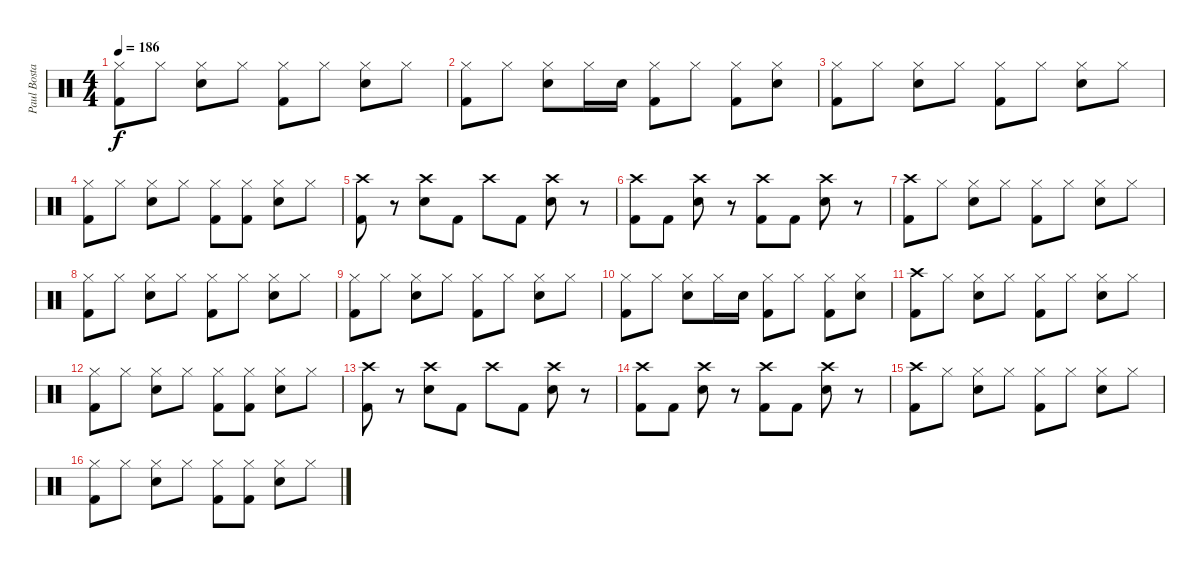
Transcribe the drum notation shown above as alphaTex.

\track ("Paul Bostaph" "Paul Bosta") {instrument percussion}
\staff {score}
\articulation defaults
\ts (4 4)
\tempo 186
\clef neutral
\ks c
("Hi-Hat (closed)" "Kick (hit) 2").8{dy f} "Hi-Hat (closed)".8 ("Hi-Hat (closed)" "Electric Snare (hit)").8 "Hi-Hat (closed)".8 ("Hi-Hat (closed)" "Kick (hit) 2").8 "Hi-Hat (closed)".8 ("Hi-Hat (closed)" "Electric Snare (hit)").8 "Hi-Hat (closed)".8 |
("Hi-Hat (closed)" "Kick (hit) 2").8 "Hi-Hat (closed)".8 ("Hi-Hat (closed)" "Electric Snare (hit)").8 "Hi-Hat (closed)".16 "Electric Snare (hit)".16 ("Hi-Hat (closed)" "Kick (hit) 2").8 "Hi-Hat (closed)".8 ("Hi-Hat (closed)" "Kick (hit) 2").8 ("Hi-Hat (closed)" "Electric Snare (hit)").8 |
("Hi-Hat (closed)" "Kick (hit) 2").8 "Hi-Hat (closed)".8 ("Hi-Hat (closed)" "Electric Snare (hit)").8 "Hi-Hat (closed)".8 ("Hi-Hat (closed)" "Kick (hit) 2").8 "Hi-Hat (closed)".8 ("Hi-Hat (closed)" "Electric Snare (hit)").8 "Hi-Hat (closed)".8 |
("Hi-Hat (closed)" "Kick (hit) 2").8 "Hi-Hat (closed)".8 ("Hi-Hat (closed)" "Electric Snare (hit)").8 "Hi-Hat (closed)".8 ("Hi-Hat (closed)" "Kick (hit) 2").8 ("Hi-Hat (closed)" "Kick (hit) 2").8 ("Hi-Hat (closed)" "Electric Snare (hit)").8 "Hi-Hat (closed)".8 |
("Crash high (hit)" "Kick (hit) 2").8 r.8 ("Crash high (hit)" "Electric Snare (hit)").8 "Kick (hit) 2".8 "Crash high (hit)".8 "Kick (hit) 2".8 ("Crash high (hit)" "Electric Snare (hit)").8 r.8 |
("Crash high (hit)" "Kick (hit) 2").8 "Kick (hit) 2".8 ("Crash high (hit)" "Electric Snare (hit)").8 r.8 ("Crash high (hit)" "Kick (hit) 2").8 "Kick (hit) 2".8 ("Crash high (hit)" "Electric Snare (hit)").8 r.8 |
("Crash high (hit)" "Kick (hit) 2").8 "Hi-Hat (closed)".8 ("Hi-Hat (closed)" "Electric Snare (hit)").8 "Hi-Hat (closed)".8 ("Hi-Hat (closed)" "Kick (hit) 2").8 "Hi-Hat (closed)".8 ("Hi-Hat (closed)" "Electric Snare (hit)").8 "Hi-Hat (closed)".8 |
("Hi-Hat (closed)" "Kick (hit) 2").8 "Hi-Hat (closed)".8 ("Hi-Hat (closed)" "Electric Snare (hit)").8 "Hi-Hat (closed)".8 ("Hi-Hat (closed)" "Kick (hit) 2").8 "Hi-Hat (closed)".8 ("Hi-Hat (closed)" "Electric Snare (hit)").8 "Hi-Hat (closed)".8 |
("Hi-Hat (closed)" "Kick (hit) 2").8 "Hi-Hat (closed)".8 ("Hi-Hat (closed)" "Electric Snare (hit)").8 "Hi-Hat (closed)".8 ("Hi-Hat (closed)" "Kick (hit) 2").8 "Hi-Hat (closed)".8 ("Hi-Hat (closed)" "Electric Snare (hit)").8 "Hi-Hat (closed)".8 |
("Hi-Hat (closed)" "Kick (hit) 2").8 "Hi-Hat (closed)".8 ("Hi-Hat (closed)" "Electric Snare (hit)").8 "Hi-Hat (closed)".16 "Electric Snare (hit)".16 ("Hi-Hat (closed)" "Kick (hit) 2").8 "Hi-Hat (closed)".8 ("Hi-Hat (closed)" "Kick (hit) 2").8 ("Hi-Hat (closed)" "Electric Snare (hit)").8 |
("Crash high (hit)" "Kick (hit) 2").8 "Hi-Hat (closed)".8 ("Hi-Hat (closed)" "Electric Snare (hit)").8 "Hi-Hat (closed)".8 ("Hi-Hat (closed)" "Kick (hit) 2").8 "Hi-Hat (closed)".8 ("Hi-Hat (closed)" "Electric Snare (hit)").8 "Hi-Hat (closed)".8 |
("Hi-Hat (closed)" "Kick (hit) 2").8 "Hi-Hat (closed)".8 ("Hi-Hat (closed)" "Electric Snare (hit)").8 "Hi-Hat (closed)".8 ("Hi-Hat (closed)" "Kick (hit) 2").8 ("Hi-Hat (closed)" "Kick (hit) 2").8 ("Hi-Hat (closed)" "Electric Snare (hit)").8 "Hi-Hat (closed)".8 |
("Crash high (hit)" "Kick (hit) 2").8 r.8 ("Crash high (hit)" "Electric Snare (hit)").8 "Kick (hit) 2".8 "Crash high (hit)".8 "Kick (hit) 2".8 ("Crash high (hit)" "Electric Snare (hit)").8 r.8 |
("Crash high (hit)" "Kick (hit) 2").8 "Kick (hit) 2".8 ("Crash high (hit)" "Electric Snare (hit)").8 r.8 ("Crash high (hit)" "Kick (hit) 2").8 "Kick (hit) 2".8 ("Crash high (hit)" "Electric Snare (hit)").8 r.8 |
("Crash high (hit)" "Kick (hit) 2").8 "Hi-Hat (closed)".8 ("Hi-Hat (closed)" "Electric Snare (hit)").8 "Hi-Hat (closed)".8 ("Hi-Hat (closed)" "Kick (hit) 2").8 "Hi-Hat (closed)".8 ("Hi-Hat (closed)" "Electric Snare (hit)").8 "Hi-Hat (closed)".8 |
("Hi-Hat (closed)" "Kick (hit) 2").8 "Hi-Hat (closed)".8 ("Hi-Hat (closed)" "Electric Snare (hit)").8 "Hi-Hat (closed)".8 ("Hi-Hat (closed)" "Kick (hit) 2").8 ("Hi-Hat (closed)" "Kick (hit) 2").8 ("Hi-Hat (closed)" "Electric Snare (hit)").8 "Hi-Hat (closed)".8
